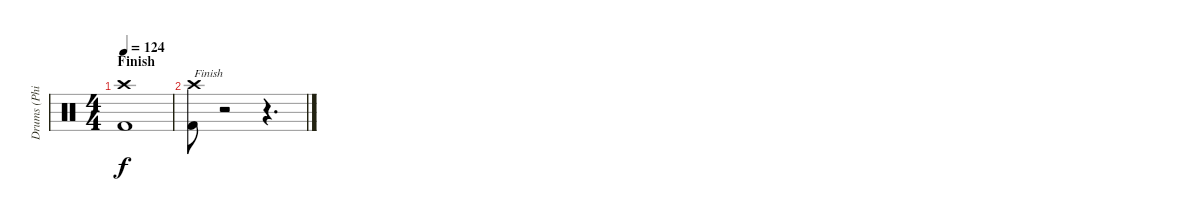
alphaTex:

\track ("Drums (Phil R.)" "Drums (Phi") {instrument percussion}
\staff {score}
\articulation defaults
\ts (4 4)
\section ("" "Finish")
\tempo 124
\clef neutral
\ks c
("Crash high (hit)" "Kick (hit) 2").1{dy f} |
("Crash high (hit)" "Kick (hit) 2").8{txt "Finish"} r.2 r.4{d}
